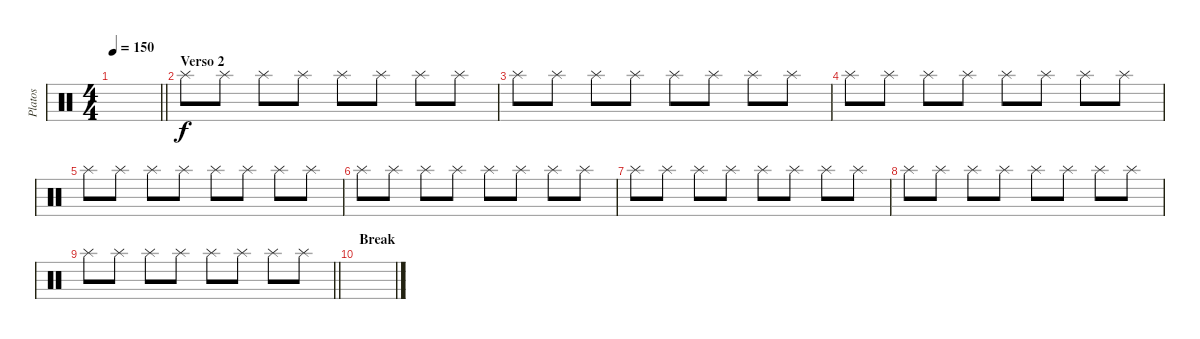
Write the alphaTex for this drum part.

\track ("Platos" "Platos") {instrument percussion}
\staff {score}
\articulation defaults
\ts (4 4)
\tempo 150
\clef neutral
\barLineRight lightlight
\ks c
|
\section ("" "Verso 2")
"Splash (hit)".8 "Splash (hit)".8 "Splash (hit)".8 "Splash (hit)".8 "Splash (hit)".8 "Splash (hit)".8 "Splash (hit)".8 "Splash (hit)".8 |
"Splash (hit)".8 "Splash (hit)".8 "Splash (hit)".8 "Splash (hit)".8 "Splash (hit)".8 "Splash (hit)".8 "Splash (hit)".8 "Splash (hit)".8 |
"Splash (hit)".8 "Splash (hit)".8 "Splash (hit)".8 "Splash (hit)".8 "Splash (hit)".8 "Splash (hit)".8 "Splash (hit)".8 "Splash (hit)".8 |
"Splash (hit)".8 "Splash (hit)".8 "Splash (hit)".8 "Splash (hit)".8 "Splash (hit)".8 "Splash (hit)".8 "Splash (hit)".8 "Splash (hit)".8 |
"Splash (hit)".8 "Splash (hit)".8 "Splash (hit)".8 "Splash (hit)".8 "Splash (hit)".8 "Splash (hit)".8 "Splash (hit)".8 "Splash (hit)".8 |
"Splash (hit)".8 "Splash (hit)".8 "Splash (hit)".8 "Splash (hit)".8 "Splash (hit)".8 "Splash (hit)".8 "Splash (hit)".8 "Splash (hit)".8 |
"Splash (hit)".8 "Splash (hit)".8 "Splash (hit)".8 "Splash (hit)".8 "Splash (hit)".8 "Splash (hit)".8 "Splash (hit)".8 "Splash (hit)".8 |
\barLineRight lightlight "Splash (hit)".8 "Splash (hit)".8 "Splash (hit)".8 "Splash (hit)".8 "Splash (hit)".8 "Splash (hit)".8 "Splash (hit)".8 "Splash (hit)".8
|
\section ("" "Break")
